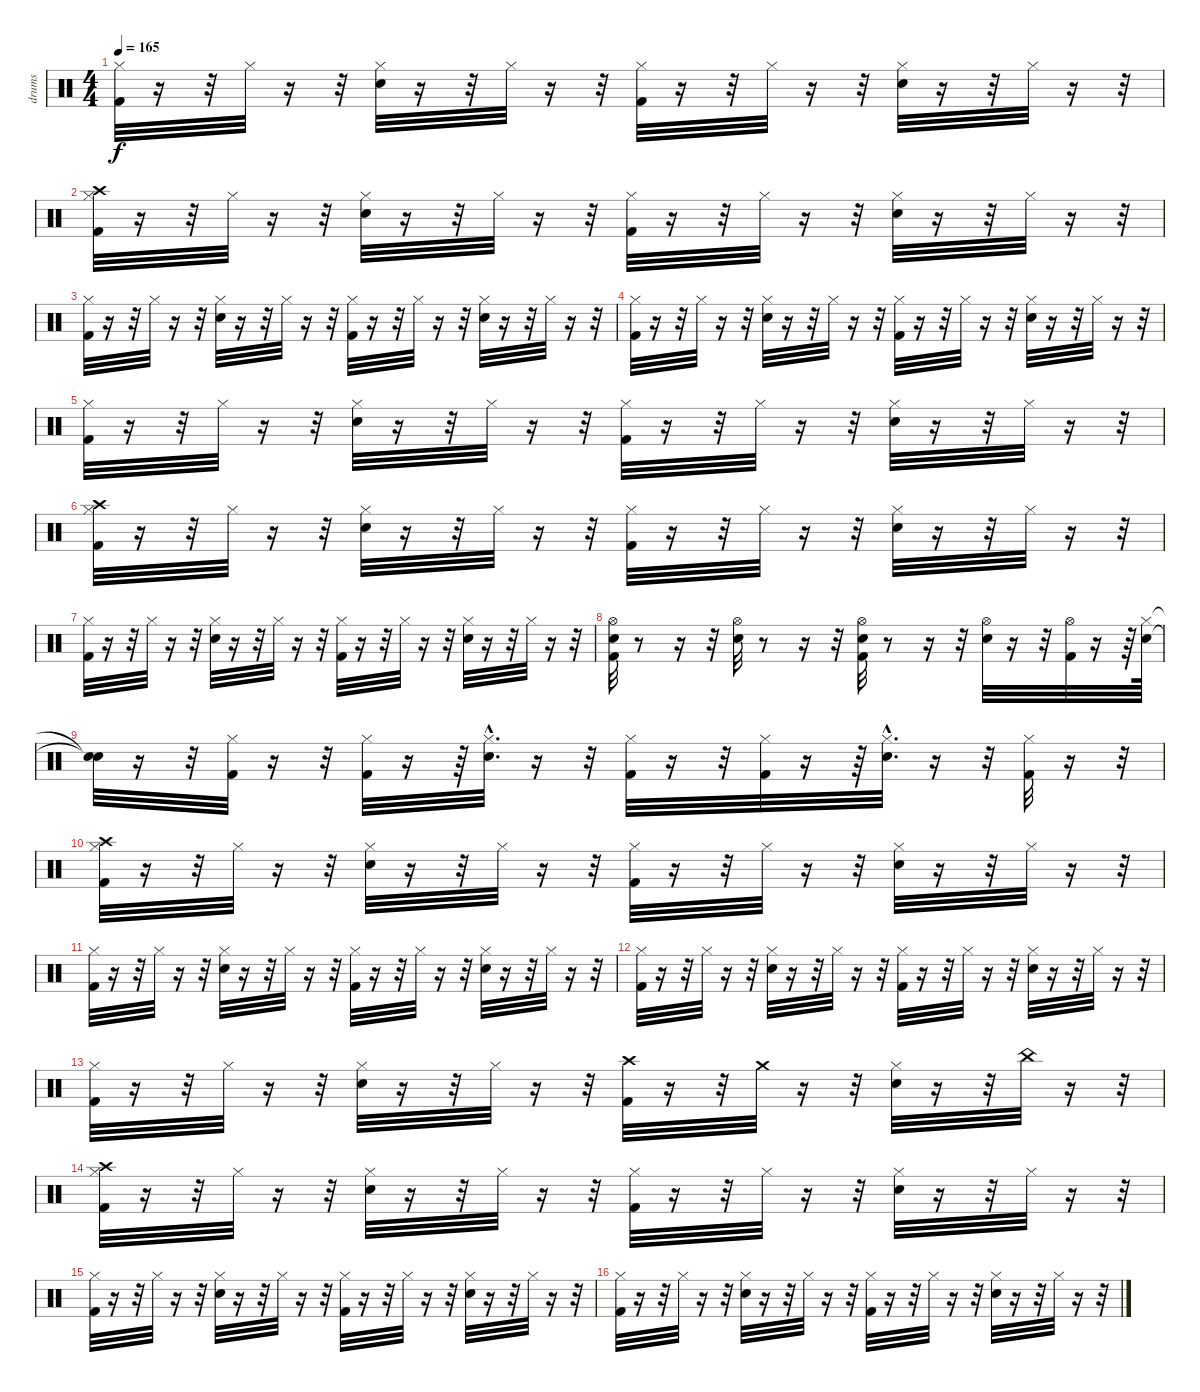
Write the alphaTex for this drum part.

\track ("drums" "drums") {instrument percussion}
\staff {score}
\articulation defaults
\ts (4 4)
\tempo 165
\clef neutral
\ks c
("Hi-Hat (closed)" "Kick (hit) 2").32{dy f} r.16 r.32 "Hi-Hat (closed)".32 r.16 r.32 ("Hi-Hat (closed)" "Electric Snare (hit)").32 r.16 r.32 "Hi-Hat (closed)".32 r.16 r.32 ("Hi-Hat (closed)" "Kick (hit) 2").32 r.16 r.32 "Hi-Hat (closed)".32 r.16 r.32 ("Hi-Hat (closed)" "Electric Snare (hit)").32 r.16 r.32 "Hi-Hat (closed)".32 r.16 r.32 |
("Crash high (hit)" "Hi-Hat (closed)" "Kick (hit) 2").32 r.16 r.32 "Hi-Hat (closed)".32 r.16 r.32 ("Hi-Hat (closed)" "Electric Snare (hit)").32 r.16 r.32 "Hi-Hat (closed)".32 r.16 r.32 ("Hi-Hat (closed)" "Kick (hit) 2").32 r.16 r.32 "Hi-Hat (closed)".32 r.16 r.32 ("Hi-Hat (closed)" "Electric Snare (hit)").32 r.16 r.32 "Hi-Hat (closed)".32 r.16 r.32 |
("Hi-Hat (closed)" "Kick (hit) 2").32 r.16 r.32 "Hi-Hat (closed)".32 r.16 r.32 ("Hi-Hat (closed)" "Electric Snare (hit)").32 r.16 r.32 "Hi-Hat (closed)".32 r.16 r.32 ("Hi-Hat (closed)" "Kick (hit) 2").32 r.16 r.32 "Hi-Hat (closed)".32 r.16 r.32 ("Hi-Hat (closed)" "Electric Snare (hit)").32 r.16 r.32 "Hi-Hat (closed)".32 r.16 r.32 |
("Hi-Hat (closed)" "Kick (hit) 2").32 r.16 r.32 "Hi-Hat (closed)".32 r.16 r.32 ("Hi-Hat (closed)" "Electric Snare (hit)").32 r.16 r.32 "Hi-Hat (closed)".32 r.16 r.32 ("Hi-Hat (closed)" "Kick (hit) 2").32 r.16 r.32 "Hi-Hat (closed)".32 r.16 r.32 ("Hi-Hat (closed)" "Electric Snare (hit)").32 r.16 r.32 "Hi-Hat (closed)".32 r.16 r.32 |
("Hi-Hat (closed)" "Kick (hit) 2").32 r.16 r.32 "Hi-Hat (closed)".32 r.16 r.32 ("Hi-Hat (closed)" "Electric Snare (hit)").32 r.16 r.32 "Hi-Hat (closed)".32 r.16 r.32 ("Hi-Hat (closed)" "Kick (hit) 2").32 r.16 r.32 "Hi-Hat (closed)".32 r.16 r.32 ("Hi-Hat (closed)" "Electric Snare (hit)").32 r.16 r.32 "Hi-Hat (closed)".32 r.16 r.32 |
("Crash high (hit)" "Hi-Hat (closed)" "Kick (hit) 2").32 r.16 r.32 "Hi-Hat (closed)".32 r.16 r.32 ("Hi-Hat (closed)" "Electric Snare (hit)").32 r.16 r.32 "Hi-Hat (closed)".32 r.16 r.32 ("Hi-Hat (closed)" "Kick (hit) 2").32 r.16 r.32 "Hi-Hat (closed)".32 r.16 r.32 ("Hi-Hat (closed)" "Electric Snare (hit)").32 r.16 r.32 "Hi-Hat (closed)".32 r.16 r.32 |
("Hi-Hat (closed)" "Kick (hit) 2").32 r.16 r.32 "Hi-Hat (closed)".32 r.16 r.32 ("Hi-Hat (closed)" "Electric Snare (hit)").32 r.16 r.32 "Hi-Hat (closed)".32 r.16 r.32 ("Hi-Hat (closed)" "Kick (hit) 2").32 r.16 r.32 "Hi-Hat (closed)".32 r.16 r.32 ("Hi-Hat (closed)" "Electric Snare (hit)").32 r.16 r.32 "Hi-Hat (closed)".32 r.16 r.32 |
("Electric Snare (hit)" "Hi-Hat (open)" "Kick (hit) 2").32 r.8 r.16 r.32 ("Electric Snare (hit)" "Hi-Hat (open)").32 r.8 r.16 r.32 ("Electric Snare (hit)" "Hi-Hat (open)" "Kick (hit) 2").32 r.8 r.16 r.32 ("Hi-Hat (open)" "Electric Snare (hit)").32 r.16 r.32 ("Kick (hit) 2" "Hi-Hat (open)").32 r.16 r.64 ("Hi-Hat (closed)" "Electric Snare (hit)").64 |
("Snare (hit)"{t} "Snare (hit)"{t}).32 r.16 r.32 ("Kick (hit) 2" "Hi-Hat (closed)").32 r.16 r.32 ("Hi-Hat (closed)" "Kick (hit) 2").32 r.16 r.64 ("Electric Snare (hit)"{hac} "Hi-Hat (closed)"{hac}).32{d} r.16 r.32 ("Hi-Hat (closed)" "Kick (hit) 2").32 r.16 r.32 ("Hi-Hat (closed)" "Kick (hit) 2").32 r.16 r.64 ("Hi-Hat (closed)"{hac} "Electric Snare (hit)"{hac}).32{d} r.16 r.32 ("Kick (hit) 2" "Hi-Hat (closed)").32 r.16 r.32 |
("Crash high (hit)" "Hi-Hat (closed)" "Kick (hit) 2").32 r.16 r.32 "Hi-Hat (closed)".32 r.16 r.32 ("Hi-Hat (closed)" "Electric Snare (hit)").32 r.16 r.32 "Hi-Hat (closed)".32 r.16 r.32 ("Hi-Hat (closed)" "Kick (hit) 2").32 r.16 r.32 "Hi-Hat (closed)".32 r.16 r.32 ("Hi-Hat (closed)" "Electric Snare (hit)").32 r.16 r.32 "Hi-Hat (closed)".32 r.16 r.32 |
("Hi-Hat (closed)" "Kick (hit) 2").32 r.16 r.32 "Hi-Hat (closed)".32 r.16 r.32 ("Hi-Hat (closed)" "Electric Snare (hit)").32 r.16 r.32 "Hi-Hat (closed)".32 r.16 r.32 ("Hi-Hat (closed)" "Kick (hit) 2").32 r.16 r.32 "Hi-Hat (closed)".32 r.16 r.32 ("Hi-Hat (closed)" "Electric Snare (hit)").32 r.16 r.32 "Hi-Hat (closed)".32 r.16 r.32 |
("Hi-Hat (closed)" "Kick (hit) 2").32 r.16 r.32 "Hi-Hat (closed)".32 r.16 r.32 ("Hi-Hat (closed)" "Electric Snare (hit)").32 r.16 r.32 "Hi-Hat (closed)".32 r.16 r.32 ("Hi-Hat (closed)" "Kick (hit) 2").32 r.16 r.32 "Hi-Hat (closed)".32 r.16 r.32 ("Hi-Hat (closed)" "Electric Snare (hit)").32 r.16 r.32 "Hi-Hat (closed)".32 r.16 r.32 |
("Hi-Hat (closed)" "Kick (hit) 2").32 r.16 r.32 "Hi-Hat (closed)".32 r.16 r.32 ("Hi-Hat (closed)" "Electric Snare (hit)").32 r.16 r.32 "Hi-Hat (closed)".32 r.16 r.32 ("Crash high (hit)" "Kick (hit) 2").32 r.16 r.32 "Crash medium (hit)".32 r.16 r.32 ("Hi-Hat (closed)" "Electric Snare (hit)").32 r.16 r.32 "China (hit)".32 r.16 r.32 |
("Crash high (hit)" "Hi-Hat (closed)" "Kick (hit) 2").32 r.16 r.32 "Hi-Hat (closed)".32 r.16 r.32 ("Hi-Hat (closed)" "Electric Snare (hit)").32 r.16 r.32 "Hi-Hat (closed)".32 r.16 r.32 ("Hi-Hat (closed)" "Kick (hit) 2").32 r.16 r.32 "Hi-Hat (closed)".32 r.16 r.32 ("Hi-Hat (closed)" "Electric Snare (hit)").32 r.16 r.32 "Hi-Hat (closed)".32 r.16 r.32 |
("Hi-Hat (closed)" "Kick (hit) 2").32 r.16 r.32 "Hi-Hat (closed)".32 r.16 r.32 ("Hi-Hat (closed)" "Electric Snare (hit)").32 r.16 r.32 "Hi-Hat (closed)".32 r.16 r.32 ("Hi-Hat (closed)" "Kick (hit) 2").32 r.16 r.32 "Hi-Hat (closed)".32 r.16 r.32 ("Hi-Hat (closed)" "Electric Snare (hit)").32 r.16 r.32 "Hi-Hat (closed)".32 r.16 r.32 |
("Hi-Hat (closed)" "Kick (hit) 2").32 r.16 r.32 "Hi-Hat (closed)".32 r.16 r.32 ("Hi-Hat (closed)" "Electric Snare (hit)").32 r.16 r.32 "Hi-Hat (closed)".32 r.16 r.32 ("Hi-Hat (closed)" "Kick (hit) 2").32 r.16 r.32 "Hi-Hat (closed)".32 r.16 r.32 ("Hi-Hat (closed)" "Electric Snare (hit)").32 r.16 r.32 "Hi-Hat (closed)".32 r.16 r.32
